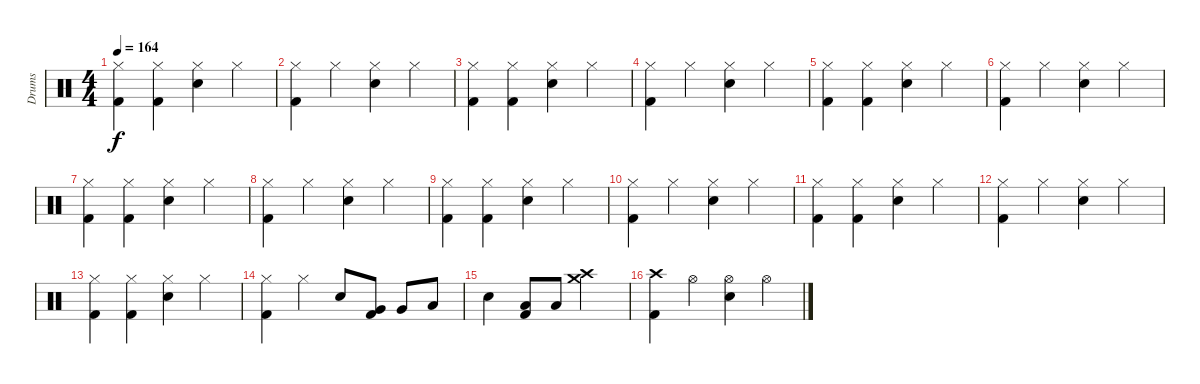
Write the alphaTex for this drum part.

\track ("Drums" "Drums") {instrument percussion}
\staff {score}
\articulation defaults
\ts (4 4)
\tempo 164
\clef neutral
\ks c
("Hi-Hat (closed)" "Kick (hit) 2").4{dy f} ("Hi-Hat (closed)" "Kick (hit) 2").4 ("Hi-Hat (closed)" "Snare (hit) 2").4 "Hi-Hat (closed)".4 |
("Hi-Hat (closed)" "Kick (hit) 2").4 "Hi-Hat (closed)".4 ("Hi-Hat (closed)" "Snare (hit) 2").4 "Hi-Hat (closed)".4 |
("Hi-Hat (closed)" "Kick (hit) 2").4 ("Hi-Hat (closed)" "Kick (hit) 2").4 ("Hi-Hat (closed)" "Snare (hit) 2").4 "Hi-Hat (closed)".4 |
("Hi-Hat (closed)" "Kick (hit) 2").4 "Hi-Hat (closed)".4 ("Hi-Hat (closed)" "Snare (hit) 2").4 "Hi-Hat (closed)".4 |
("Hi-Hat (closed)" "Kick (hit) 2").4 ("Hi-Hat (closed)" "Kick (hit) 2").4 ("Hi-Hat (closed)" "Snare (hit) 2").4 "Hi-Hat (closed)".4 |
("Hi-Hat (closed)" "Kick (hit) 2").4 "Hi-Hat (closed)".4 ("Hi-Hat (closed)" "Snare (hit) 2").4 "Hi-Hat (closed)".4 |
("Hi-Hat (closed)" "Kick (hit) 2").4 ("Hi-Hat (closed)" "Kick (hit) 2").4 ("Hi-Hat (closed)" "Snare (hit) 2").4 "Hi-Hat (closed)".4 |
("Hi-Hat (closed)" "Kick (hit) 2").4 "Hi-Hat (closed)".4 ("Hi-Hat (closed)" "Snare (hit) 2").4 "Hi-Hat (closed)".4 |
("Hi-Hat (closed)" "Kick (hit) 2").4 ("Hi-Hat (closed)" "Kick (hit) 2").4 ("Hi-Hat (closed)" "Snare (hit) 2").4 "Hi-Hat (closed)".4 |
("Hi-Hat (closed)" "Kick (hit) 2").4 "Hi-Hat (closed)".4 ("Hi-Hat (closed)" "Snare (hit) 2").4 "Hi-Hat (closed)".4 |
("Hi-Hat (closed)" "Kick (hit) 2").4 ("Hi-Hat (closed)" "Kick (hit) 2").4 ("Hi-Hat (closed)" "Snare (hit) 2").4 "Hi-Hat (closed)".4 |
("Hi-Hat (closed)" "Kick (hit) 2").4 "Hi-Hat (closed)".4 ("Hi-Hat (closed)" "Snare (hit) 2").4 "Hi-Hat (closed)".4 |
("Hi-Hat (closed)" "Kick (hit) 2").4 ("Hi-Hat (closed)" "Kick (hit) 2").4 ("Hi-Hat (closed)" "Snare (hit) 2").4 "Hi-Hat (closed)".4 |
("Hi-Hat (closed)" "Kick (hit) 2").4 "Hi-Hat (closed)".4 "Snare (hit) 2".8 ("Very Low Tom (hit)" "Kick (hit) 2").8 "Very Low Tom (hit)".8 "Low Floor Tom (hit)".8 |
"Snare (hit) 2".4 ("Low Floor Tom (hit)" "Kick (hit) 2").8 "Low Floor Tom (hit)".8 ("Crash high (hit)" "Crash medium (hit)").2 |
("Crash high (hit)" "Kick (hit) 2").4 "Hi-Hat (open)".4 ("Hi-Hat (open)" "Snare (hit) 2").4 "Hi-Hat (open)".4
